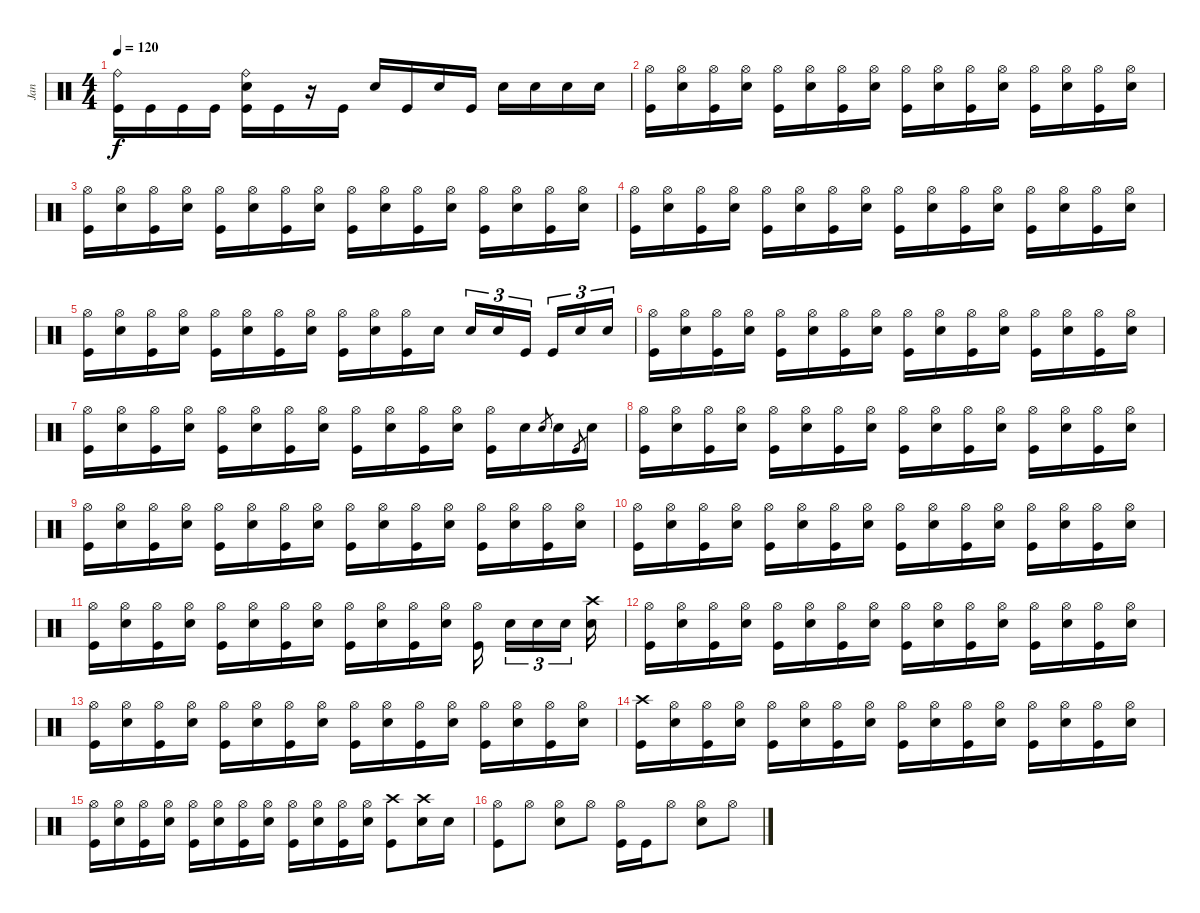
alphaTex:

\track ("Jan" "Jan") {instrument percussion}
\staff {score}
\articulation defaults
\ts (4 4)
\tempo 120
\clef neutral
\ks c
("Ride (bell)" "Kick (hit)").16{dy f} "Kick (hit)".16 "Kick (hit)".16 "Kick (hit)".16 ("Ride (bell)" "Snare (hit) 2" "Kick (hit)").16 "Kick (hit)".16 r.16 "Kick (hit)".16 "Snare (hit) 2".16 "Kick (hit)".16 "Snare (hit) 2".16 "Kick (hit)".16 "Snare (hit) 2".16 "Snare (hit) 2".16 "Snare (hit) 2".16 "Snare (hit) 2".16 |
("Hi-Hat (open)" "Kick (hit)").16 ("Hi-Hat (open)" "Snare (hit) 2").16 ("Hi-Hat (open)" "Kick (hit)").16 ("Hi-Hat (open)" "Snare (hit) 2").16 ("Hi-Hat (open)" "Kick (hit)").16 ("Hi-Hat (open)" "Snare (hit) 2").16 ("Hi-Hat (open)" "Kick (hit)").16 ("Hi-Hat (open)" "Snare (hit) 2").16 ("Hi-Hat (open)" "Kick (hit)").16 ("Hi-Hat (open)" "Snare (hit) 2").16 ("Hi-Hat (open)" "Kick (hit)").16 ("Hi-Hat (open)" "Snare (hit) 2").16 ("Hi-Hat (open)" "Kick (hit)").16 ("Hi-Hat (open)" "Snare (hit) 2").16 ("Hi-Hat (open)" "Kick (hit)").16 ("Hi-Hat (open)" "Snare (hit) 2").16 |
("Hi-Hat (open)" "Kick (hit)").16 ("Hi-Hat (open)" "Snare (hit) 2").16 ("Hi-Hat (open)" "Kick (hit)").16 ("Hi-Hat (open)" "Snare (hit) 2").16 ("Hi-Hat (open)" "Kick (hit)").16 ("Hi-Hat (open)" "Snare (hit) 2").16 ("Hi-Hat (open)" "Kick (hit)").16 ("Hi-Hat (open)" "Snare (hit) 2").16 ("Hi-Hat (open)" "Kick (hit)").16 ("Hi-Hat (open)" "Snare (hit) 2").16 ("Hi-Hat (open)" "Kick (hit)").16 ("Hi-Hat (open)" "Snare (hit) 2").16 ("Hi-Hat (open)" "Kick (hit)").16 ("Hi-Hat (open)" "Snare (hit) 2").16 ("Hi-Hat (open)" "Kick (hit)").16 ("Hi-Hat (open)" "Snare (hit) 2").16 |
("Hi-Hat (open)" "Kick (hit)").16 ("Hi-Hat (open)" "Snare (hit) 2").16 ("Hi-Hat (open)" "Kick (hit)").16 ("Hi-Hat (open)" "Snare (hit) 2").16 ("Hi-Hat (open)" "Kick (hit)").16 ("Hi-Hat (open)" "Snare (hit) 2").16 ("Hi-Hat (open)" "Kick (hit)").16 ("Hi-Hat (open)" "Snare (hit) 2").16 ("Hi-Hat (open)" "Kick (hit)").16 ("Hi-Hat (open)" "Snare (hit) 2").16 ("Hi-Hat (open)" "Kick (hit)").16 ("Hi-Hat (open)" "Snare (hit) 2").16 ("Hi-Hat (open)" "Kick (hit)").16 ("Hi-Hat (open)" "Snare (hit) 2").16 ("Hi-Hat (open)" "Kick (hit)").16 ("Hi-Hat (open)" "Snare (hit) 2").16 |
("Hi-Hat (open)" "Kick (hit)").16 ("Hi-Hat (open)" "Snare (hit) 2").16 ("Hi-Hat (open)" "Kick (hit)").16 ("Hi-Hat (open)" "Snare (hit) 2").16 ("Hi-Hat (open)" "Kick (hit)").16 ("Hi-Hat (open)" "Snare (hit) 2").16 ("Hi-Hat (open)" "Kick (hit)").16 ("Hi-Hat (open)" "Snare (hit) 2").16 ("Hi-Hat (open)" "Kick (hit)").16 ("Hi-Hat (open)" "Snare (hit) 2").16 ("Hi-Hat (open)" "Kick (hit)").16 "Snare (hit) 2".16 "Snare (hit) 2".16{tu (3 2)} "Snare (hit) 2".16{tu (3 2)} "Kick (hit)".16{tu (3 2)} "Kick (hit)".16{tu (3 2)} "Snare (hit) 2".16{tu (3 2)} "Snare (hit) 2".16{tu (3 2)} |
("Hi-Hat (open)" "Kick (hit)").16 ("Hi-Hat (open)" "Snare (hit) 2").16 ("Hi-Hat (open)" "Kick (hit)").16 ("Hi-Hat (open)" "Snare (hit) 2").16 ("Hi-Hat (open)" "Kick (hit)").16 ("Hi-Hat (open)" "Snare (hit) 2").16 ("Hi-Hat (open)" "Kick (hit)").16 ("Hi-Hat (open)" "Snare (hit) 2").16 ("Hi-Hat (open)" "Kick (hit)").16 ("Hi-Hat (open)" "Snare (hit) 2").16 ("Hi-Hat (open)" "Kick (hit)").16 ("Hi-Hat (open)" "Snare (hit) 2").16 ("Hi-Hat (open)" "Kick (hit)").16 ("Hi-Hat (open)" "Snare (hit) 2").16 ("Hi-Hat (open)" "Kick (hit)").16 ("Hi-Hat (open)" "Snare (hit) 2").16 |
("Hi-Hat (open)" "Kick (hit)").16 ("Hi-Hat (open)" "Snare (hit) 2").16 ("Hi-Hat (open)" "Kick (hit)").16 ("Hi-Hat (open)" "Snare (hit) 2").16 ("Hi-Hat (open)" "Kick (hit)").16 ("Hi-Hat (open)" "Snare (hit) 2").16 ("Hi-Hat (open)" "Kick (hit)").16 ("Hi-Hat (open)" "Snare (hit) 2").16 ("Hi-Hat (open)" "Kick (hit)").16 ("Hi-Hat (open)" "Snare (hit) 2").16 ("Hi-Hat (open)" "Kick (hit)").16 ("Hi-Hat (open)" "Snare (hit) 2").16 ("Hi-Hat (open)" "Kick (hit)").16 "Snare (hit) 2".16 "Snare (hit) 2".8{gr} "Snare (hit) 2".16 "Kick (hit)".8{gr} "Snare (hit) 2".16 |
("Hi-Hat (open)" "Kick (hit)").16 ("Hi-Hat (open)" "Snare (hit) 2").16 ("Hi-Hat (open)" "Kick (hit)").16 ("Hi-Hat (open)" "Snare (hit) 2").16 ("Hi-Hat (open)" "Kick (hit)").16 ("Hi-Hat (open)" "Snare (hit) 2").16 ("Hi-Hat (open)" "Kick (hit)").16 ("Hi-Hat (open)" "Snare (hit) 2").16 ("Hi-Hat (open)" "Kick (hit)").16 ("Hi-Hat (open)" "Snare (hit) 2").16 ("Hi-Hat (open)" "Kick (hit)").16 ("Hi-Hat (open)" "Snare (hit) 2").16 ("Hi-Hat (open)" "Kick (hit)").16 ("Hi-Hat (open)" "Snare (hit) 2").16 ("Hi-Hat (open)" "Kick (hit)").16 ("Hi-Hat (open)" "Snare (hit) 2").16 |
("Hi-Hat (open)" "Kick (hit)").16 ("Hi-Hat (open)" "Snare (hit) 2").16 ("Hi-Hat (open)" "Kick (hit)").16 ("Hi-Hat (open)" "Snare (hit) 2").16 ("Hi-Hat (open)" "Kick (hit)").16 ("Hi-Hat (open)" "Snare (hit) 2").16 ("Hi-Hat (open)" "Kick (hit)").16 ("Hi-Hat (open)" "Snare (hit) 2").16 ("Hi-Hat (open)" "Kick (hit)").16 ("Hi-Hat (open)" "Snare (hit) 2").16 ("Hi-Hat (open)" "Kick (hit)").16 ("Hi-Hat (open)" "Snare (hit) 2").16 ("Hi-Hat (open)" "Kick (hit)").16 ("Hi-Hat (open)" "Snare (hit) 2").16 ("Hi-Hat (open)" "Kick (hit)").16 ("Hi-Hat (open)" "Snare (hit) 2").16 |
("Hi-Hat (open)" "Kick (hit)").16 ("Hi-Hat (open)" "Snare (hit) 2").16 ("Hi-Hat (open)" "Kick (hit)").16 ("Hi-Hat (open)" "Snare (hit) 2").16 ("Hi-Hat (open)" "Kick (hit)").16 ("Hi-Hat (open)" "Snare (hit) 2").16 ("Hi-Hat (open)" "Kick (hit)").16 ("Hi-Hat (open)" "Snare (hit) 2").16 ("Hi-Hat (open)" "Kick (hit)").16 ("Hi-Hat (open)" "Snare (hit) 2").16 ("Hi-Hat (open)" "Kick (hit)").16 ("Hi-Hat (open)" "Snare (hit) 2").16 ("Hi-Hat (open)" "Kick (hit)").16 ("Hi-Hat (open)" "Snare (hit) 2").16 ("Hi-Hat (open)" "Kick (hit)").16 ("Hi-Hat (open)" "Snare (hit) 2").16 |
("Hi-Hat (open)" "Kick (hit)").16 ("Hi-Hat (open)" "Snare (hit) 2").16 ("Hi-Hat (open)" "Kick (hit)").16 ("Hi-Hat (open)" "Snare (hit) 2").16 ("Hi-Hat (open)" "Kick (hit)").16 ("Hi-Hat (open)" "Snare (hit) 2").16 ("Hi-Hat (open)" "Kick (hit)").16 ("Hi-Hat (open)" "Snare (hit) 2").16 ("Hi-Hat (open)" "Kick (hit)").16 ("Hi-Hat (open)" "Snare (hit) 2").16 ("Hi-Hat (open)" "Kick (hit)").16 ("Hi-Hat (open)" "Snare (hit) 2").16 ("Hi-Hat (open)" "Kick (hit)").16 "Snare (hit) 2".16{tu (3 2)} "Snare (hit) 2".16{tu (3 2)} "Snare (hit) 2".16{tu (3 2)} ("Crash high (hit)" "Snare (hit) 2").16 |
("Hi-Hat (open)" "Kick (hit)").16 ("Hi-Hat (open)" "Snare (hit) 2").16 ("Hi-Hat (open)" "Kick (hit)").16 ("Hi-Hat (open)" "Snare (hit) 2").16 ("Hi-Hat (open)" "Kick (hit)").16 ("Hi-Hat (open)" "Snare (hit) 2").16 ("Hi-Hat (open)" "Kick (hit)").16 ("Hi-Hat (open)" "Snare (hit) 2").16 ("Hi-Hat (open)" "Kick (hit)").16 ("Hi-Hat (open)" "Snare (hit) 2").16 ("Hi-Hat (open)" "Kick (hit)").16 ("Hi-Hat (open)" "Snare (hit) 2").16 ("Hi-Hat (open)" "Kick (hit)").16 ("Hi-Hat (open)" "Snare (hit) 2").16 ("Hi-Hat (open)" "Kick (hit)").16 ("Hi-Hat (open)" "Snare (hit) 2").16 |
("Hi-Hat (open)" "Kick (hit)").16 ("Hi-Hat (open)" "Snare (hit) 2").16 ("Hi-Hat (open)" "Kick (hit)").16 ("Hi-Hat (open)" "Snare (hit) 2").16 ("Hi-Hat (open)" "Kick (hit)").16 ("Hi-Hat (open)" "Snare (hit) 2").16 ("Hi-Hat (open)" "Kick (hit)").16 ("Hi-Hat (open)" "Snare (hit) 2").16 ("Hi-Hat (open)" "Kick (hit)").16 ("Hi-Hat (open)" "Snare (hit) 2").16 ("Hi-Hat (open)" "Kick (hit)").16 ("Hi-Hat (open)" "Snare (hit) 2").16 ("Hi-Hat (open)" "Kick (hit)").16 ("Hi-Hat (open)" "Snare (hit) 2").16 ("Hi-Hat (open)" "Kick (hit)").16 ("Hi-Hat (open)" "Snare (hit) 2").16 |
("Crash high (hit)" "Kick (hit)").16 ("Hi-Hat (open)" "Snare (hit) 2").16 ("Hi-Hat (open)" "Kick (hit)").16 ("Hi-Hat (open)" "Snare (hit) 2").16 ("Hi-Hat (open)" "Kick (hit)").16 ("Hi-Hat (open)" "Snare (hit) 2").16 ("Hi-Hat (open)" "Kick (hit)").16 ("Hi-Hat (open)" "Snare (hit) 2").16 ("Hi-Hat (open)" "Kick (hit)").16 ("Hi-Hat (open)" "Snare (hit) 2").16 ("Hi-Hat (open)" "Kick (hit)").16 ("Hi-Hat (open)" "Snare (hit) 2").16 ("Hi-Hat (open)" "Kick (hit)").16 ("Hi-Hat (open)" "Snare (hit) 2").16 ("Hi-Hat (open)" "Kick (hit)").16 ("Hi-Hat (open)" "Snare (hit) 2").16 |
("Hi-Hat (open)" "Kick (hit)").16 ("Hi-Hat (open)" "Snare (hit) 2").16 ("Hi-Hat (open)" "Kick (hit)").16 ("Hi-Hat (open)" "Snare (hit) 2").16 ("Hi-Hat (open)" "Kick (hit)").16 ("Hi-Hat (open)" "Snare (hit) 2").16 ("Hi-Hat (open)" "Kick (hit)").16 ("Hi-Hat (open)" "Snare (hit) 2").16 ("Hi-Hat (open)" "Kick (hit)").16 ("Hi-Hat (open)" "Snare (hit) 2").16 ("Hi-Hat (open)" "Kick (hit)").16 ("Hi-Hat (open)" "Snare (hit) 2").16 ("Crash high (hit)" "Kick (hit)").8 ("Crash high (hit)" "Snare (hit) 2").16 "Snare (hit) 2".16 |
("Hi-Hat (open)" "Kick (hit)").8 "Hi-Hat (open)".8 ("Hi-Hat (open)" "Snare (hit) 2").8 "Hi-Hat (open)".8 ("Hi-Hat (open)" "Kick (hit)").16 "Kick (hit)".16 "Hi-Hat (open)".8 ("Hi-Hat (open)" "Snare (hit) 2").8 "Hi-Hat (open)".8
